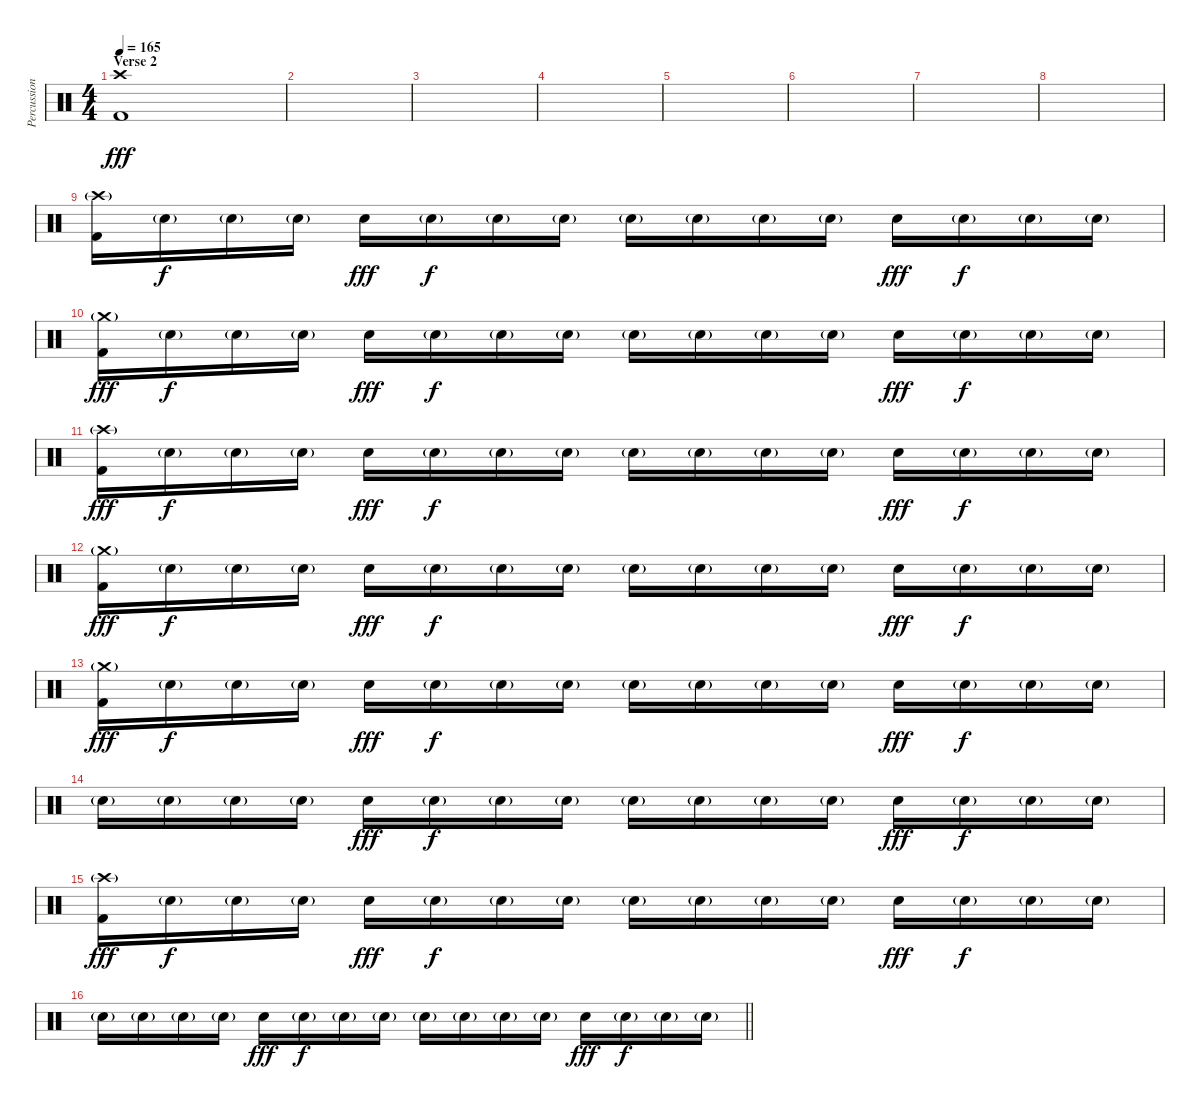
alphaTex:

\track ("Percussion" "Percussion") {instrument percussion}
\staff {score}
\articulation defaults
\ts (4 4)
\section ("" "Verse 2")
\tempo 165
\clef neutral
\ks c
("Crash high (hit)" "Kick (hit) 2").1{dy fff} |
|
|
|
|
|
|
|
("Crash high (hit)"{g} "Kick (hit) 2").16 "Electric Snare (hit)"{g}.16{dy f} "Electric Snare (hit)"{g}.16 "Electric Snare (hit)"{g}.16 "Electric Snare (hit)".16{dy fff} "Electric Snare (hit)"{g}.16{dy f} "Electric Snare (hit)"{g}.16 "Electric Snare (hit)"{g}.16 "Electric Snare (hit)"{g}.16 "Electric Snare (hit)"{g}.16 "Electric Snare (hit)"{g}.16 "Electric Snare (hit)"{g}.16 "Electric Snare (hit)".16{dy fff} "Electric Snare (hit)"{g}.16{dy f} "Electric Snare (hit)"{g}.16 "Electric Snare (hit)"{g}.16 |
("Crash medium (hit)"{g} "Kick (hit) 2").16{dy fff} "Electric Snare (hit)"{g}.16{dy f} "Electric Snare (hit)"{g}.16 "Electric Snare (hit)"{g}.16 "Electric Snare (hit)".16{dy fff} "Electric Snare (hit)"{g}.16{dy f} "Electric Snare (hit)"{g}.16 "Electric Snare (hit)"{g}.16 "Electric Snare (hit)"{g}.16 "Electric Snare (hit)"{g}.16 "Electric Snare (hit)"{g}.16 "Electric Snare (hit)"{g}.16 "Electric Snare (hit)".16{dy fff} "Electric Snare (hit)"{g}.16{dy f} "Electric Snare (hit)"{g}.16 "Electric Snare (hit)"{g}.16 |
("Crash high (hit)"{g} "Kick (hit) 2").16{dy fff} "Electric Snare (hit)"{g}.16{dy f} "Electric Snare (hit)"{g}.16 "Electric Snare (hit)"{g}.16 "Electric Snare (hit)".16{dy fff} "Electric Snare (hit)"{g}.16{dy f} "Electric Snare (hit)"{g}.16 "Electric Snare (hit)"{g}.16 "Electric Snare (hit)"{g}.16 "Electric Snare (hit)"{g}.16 "Electric Snare (hit)"{g}.16 "Electric Snare (hit)"{g}.16 "Electric Snare (hit)".16{dy fff} "Electric Snare (hit)"{g}.16{dy f} "Electric Snare (hit)"{g}.16 "Electric Snare (hit)"{g}.16 |
("Crash medium (hit)"{g} "Kick (hit) 2").16{dy fff} "Electric Snare (hit)"{g}.16{dy f} "Electric Snare (hit)"{g}.16 "Electric Snare (hit)"{g}.16 "Electric Snare (hit)".16{dy fff} "Electric Snare (hit)"{g}.16{dy f} "Electric Snare (hit)"{g}.16 "Electric Snare (hit)"{g}.16 "Electric Snare (hit)"{g}.16 "Electric Snare (hit)"{g}.16 "Electric Snare (hit)"{g}.16 "Electric Snare (hit)"{g}.16 "Electric Snare (hit)".16{dy fff} "Electric Snare (hit)"{g}.16{dy f} "Electric Snare (hit)"{g}.16 "Electric Snare (hit)"{g}.16 |
("Crash medium (hit)"{g} "Kick (hit) 2").16{dy fff} "Electric Snare (hit)"{g}.16{dy f} "Electric Snare (hit)"{g}.16 "Electric Snare (hit)"{g}.16 "Electric Snare (hit)".16{dy fff} "Electric Snare (hit)"{g}.16{dy f} "Electric Snare (hit)"{g}.16 "Electric Snare (hit)"{g}.16 "Electric Snare (hit)"{g}.16 "Electric Snare (hit)"{g}.16 "Electric Snare (hit)"{g}.16 "Electric Snare (hit)"{g}.16 "Electric Snare (hit)".16{dy fff} "Electric Snare (hit)"{g}.16{dy f} "Electric Snare (hit)"{g}.16 "Electric Snare (hit)"{g}.16 |
"Electric Snare (hit)"{g}.16 "Electric Snare (hit)"{g}.16 "Electric Snare (hit)"{g}.16 "Electric Snare (hit)"{g}.16 "Electric Snare (hit)".16{dy fff} "Electric Snare (hit)"{g}.16{dy f} "Electric Snare (hit)"{g}.16 "Electric Snare (hit)"{g}.16 "Electric Snare (hit)"{g}.16 "Electric Snare (hit)"{g}.16 "Electric Snare (hit)"{g}.16 "Electric Snare (hit)"{g}.16 "Electric Snare (hit)".16{dy fff} "Electric Snare (hit)"{g}.16{dy f} "Electric Snare (hit)"{g}.16 "Electric Snare (hit)"{g}.16 |
("Crash high (hit)"{g} "Kick (hit) 2").16{dy fff} "Electric Snare (hit)"{g}.16{dy f} "Electric Snare (hit)"{g}.16 "Electric Snare (hit)"{g}.16 "Electric Snare (hit)".16{dy fff} "Electric Snare (hit)"{g}.16{dy f} "Electric Snare (hit)"{g}.16 "Electric Snare (hit)"{g}.16 "Electric Snare (hit)"{g}.16 "Electric Snare (hit)"{g}.16 "Electric Snare (hit)"{g}.16 "Electric Snare (hit)"{g}.16 "Electric Snare (hit)".16{dy fff} "Electric Snare (hit)"{g}.16{dy f} "Electric Snare (hit)"{g}.16 "Electric Snare (hit)"{g}.16 |
\barLineRight lightlight "Electric Snare (hit)"{g}.16 "Electric Snare (hit)"{g}.16 "Electric Snare (hit)"{g}.16 "Electric Snare (hit)"{g}.16 "Electric Snare (hit)".16{dy fff} "Electric Snare (hit)"{g}.16{dy f} "Electric Snare (hit)"{g}.16 "Electric Snare (hit)"{g}.16 "Electric Snare (hit)"{g}.16 "Electric Snare (hit)"{g}.16 "Electric Snare (hit)"{g}.16 "Electric Snare (hit)"{g}.16 "Electric Snare (hit)".16{dy fff} "Electric Snare (hit)"{g}.16{dy f} "Electric Snare (hit)"{g}.16 "Electric Snare (hit)"{g}.16
